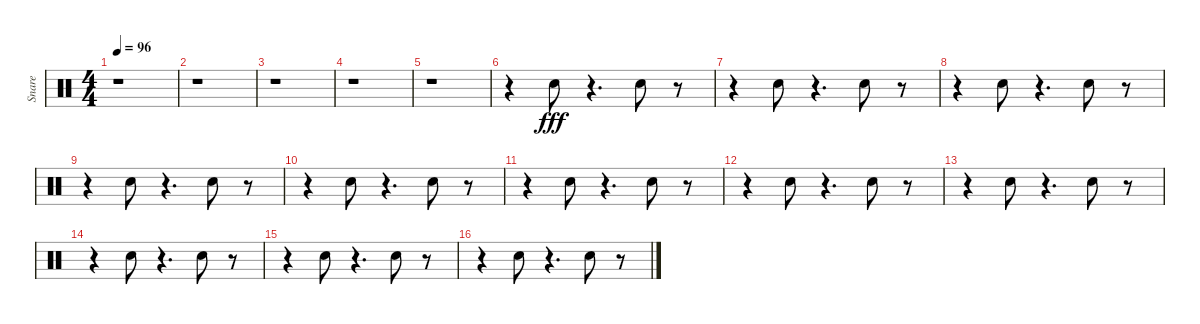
\track ("Snare" "Snare") {instrument percussion}
\staff {score}
\articulation defaults
\ts (4 4)
\tempo 96
\clef neutral
\ks c
r.1{dy fff} |
r.1 |
r.1 |
r.1 |
r.1 |
r.4 "Snare (hit) 2".8 r.4{d} "Snare (hit) 2".8 r.8 |
r.4 "Snare (hit) 2".8 r.4{d} "Snare (hit) 2".8 r.8 |
r.4 "Snare (hit) 2".8 r.4{d} "Snare (hit) 2".8 r.8 |
r.4 "Snare (hit) 2".8 r.4{d} "Snare (hit) 2".8 r.8 |
r.4 "Snare (hit) 2".8 r.4{d} "Snare (hit) 2".8 r.8 |
r.4 "Snare (hit) 2".8 r.4{d} "Snare (hit) 2".8 r.8 |
r.4 "Snare (hit) 2".8 r.4{d} "Snare (hit) 2".8 r.8 |
r.4 "Snare (hit) 2".8 r.4{d} "Snare (hit) 2".8 r.8 |
r.4 "Snare (hit) 2".8 r.4{d} "Snare (hit) 2".8 r.8 |
r.4 "Snare (hit) 2".8 r.4{d} "Snare (hit) 2".8 r.8 |
r.4 "Snare (hit) 2".8 r.4{d} "Snare (hit) 2".8 r.8
